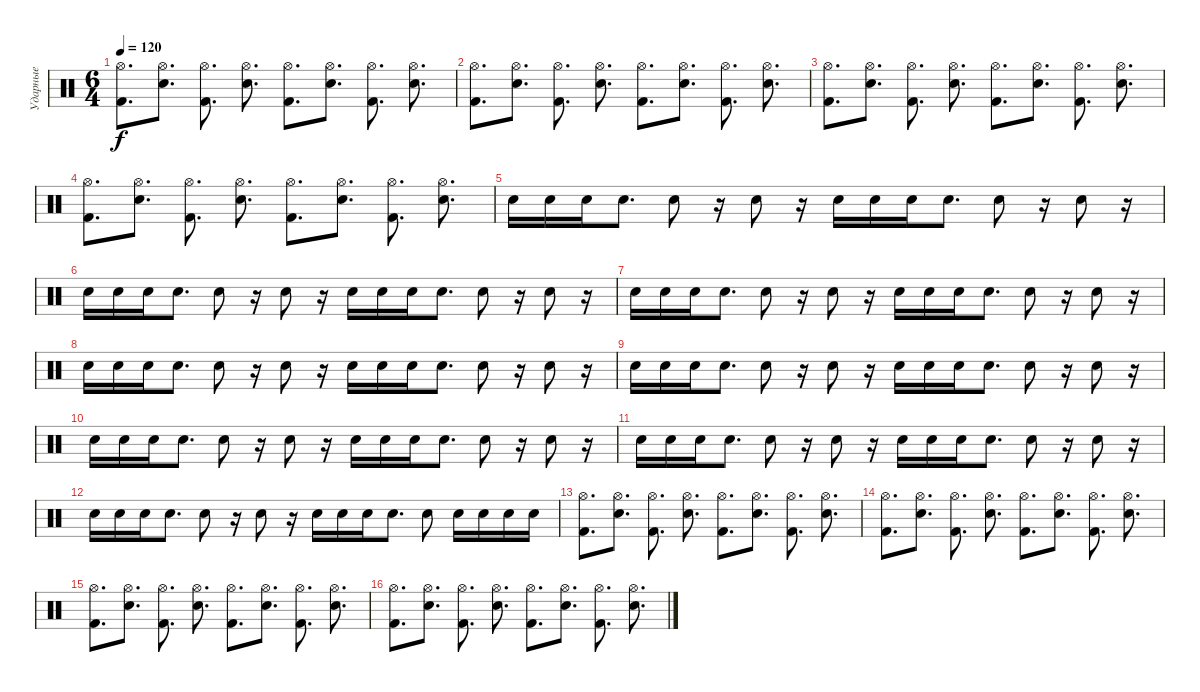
\track ("Ударные" "Ударные") {instrument percussion}
\staff {score}
\articulation defaults
\ts (6 4)
\tempo 120
\clef neutral
\ks c
("Hi-Hat (open)" "Kick (hit) 2").8{d dy f} ("Electric Snare (hit)" "Hi-Hat (open)").8{d} ("Hi-Hat (open)" "Kick (hit) 2").8{d} ("Electric Snare (hit)" "Hi-Hat (open)").8{d} ("Hi-Hat (open)" "Kick (hit) 2").8{d} ("Electric Snare (hit)" "Hi-Hat (open)").8{d} ("Hi-Hat (open)" "Kick (hit) 2").8{d} ("Electric Snare (hit)" "Hi-Hat (open)").8{d} |
("Hi-Hat (open)" "Kick (hit) 2").8{d} ("Electric Snare (hit)" "Hi-Hat (open)").8{d} ("Hi-Hat (open)" "Kick (hit) 2").8{d} ("Electric Snare (hit)" "Hi-Hat (open)").8{d} ("Hi-Hat (open)" "Kick (hit) 2").8{d} ("Electric Snare (hit)" "Hi-Hat (open)").8{d} ("Hi-Hat (open)" "Kick (hit) 2").8{d} ("Electric Snare (hit)" "Hi-Hat (open)").8{d} |
("Hi-Hat (open)" "Kick (hit) 2").8{d} ("Electric Snare (hit)" "Hi-Hat (open)").8{d} ("Hi-Hat (open)" "Kick (hit) 2").8{d} ("Electric Snare (hit)" "Hi-Hat (open)").8{d} ("Hi-Hat (open)" "Kick (hit) 2").8{d} ("Electric Snare (hit)" "Hi-Hat (open)").8{d} ("Hi-Hat (open)" "Kick (hit) 2").8{d} ("Electric Snare (hit)" "Hi-Hat (open)").8{d} |
("Hi-Hat (open)" "Kick (hit) 2").8{d} ("Electric Snare (hit)" "Hi-Hat (open)").8{d} ("Hi-Hat (open)" "Kick (hit) 2").8{d} ("Electric Snare (hit)" "Hi-Hat (open)").8{d} ("Hi-Hat (open)" "Kick (hit) 2").8{d} ("Electric Snare (hit)" "Hi-Hat (open)").8{d} ("Hi-Hat (open)" "Kick (hit) 2").8{d} ("Electric Snare (hit)" "Hi-Hat (open)").8{d} |
"Electric Snare (hit)".16 "Electric Snare (hit)".16 "Electric Snare (hit)".16 "Electric Snare (hit)".8{d} "Electric Snare (hit)".8 r.16 "Electric Snare (hit)".8 r.16 "Electric Snare (hit)".16 "Electric Snare (hit)".16 "Electric Snare (hit)".16 "Electric Snare (hit)".8{d} "Electric Snare (hit)".8 r.16 "Electric Snare (hit)".8 r.16 |
"Electric Snare (hit)".16 "Electric Snare (hit)".16 "Electric Snare (hit)".16 "Electric Snare (hit)".8{d} "Electric Snare (hit)".8 r.16 "Electric Snare (hit)".8 r.16 "Electric Snare (hit)".16 "Electric Snare (hit)".16 "Electric Snare (hit)".16 "Electric Snare (hit)".8{d} "Electric Snare (hit)".8 r.16 "Electric Snare (hit)".8 r.16 |
"Electric Snare (hit)".16 "Electric Snare (hit)".16 "Electric Snare (hit)".16 "Electric Snare (hit)".8{d} "Electric Snare (hit)".8 r.16 "Electric Snare (hit)".8 r.16 "Electric Snare (hit)".16 "Electric Snare (hit)".16 "Electric Snare (hit)".16 "Electric Snare (hit)".8{d} "Electric Snare (hit)".8 r.16 "Electric Snare (hit)".8 r.16 |
"Electric Snare (hit)".16 "Electric Snare (hit)".16 "Electric Snare (hit)".16 "Electric Snare (hit)".8{d} "Electric Snare (hit)".8 r.16 "Electric Snare (hit)".8 r.16 "Electric Snare (hit)".16 "Electric Snare (hit)".16 "Electric Snare (hit)".16 "Electric Snare (hit)".8{d} "Electric Snare (hit)".8 r.16 "Electric Snare (hit)".8 r.16 |
"Electric Snare (hit)".16 "Electric Snare (hit)".16 "Electric Snare (hit)".16 "Electric Snare (hit)".8{d} "Electric Snare (hit)".8 r.16 "Electric Snare (hit)".8 r.16 "Electric Snare (hit)".16 "Electric Snare (hit)".16 "Electric Snare (hit)".16 "Electric Snare (hit)".8{d} "Electric Snare (hit)".8 r.16 "Electric Snare (hit)".8 r.16 |
"Electric Snare (hit)".16 "Electric Snare (hit)".16 "Electric Snare (hit)".16 "Electric Snare (hit)".8{d} "Electric Snare (hit)".8 r.16 "Electric Snare (hit)".8 r.16 "Electric Snare (hit)".16 "Electric Snare (hit)".16 "Electric Snare (hit)".16 "Electric Snare (hit)".8{d} "Electric Snare (hit)".8 r.16 "Electric Snare (hit)".8 r.16 |
"Electric Snare (hit)".16 "Electric Snare (hit)".16 "Electric Snare (hit)".16 "Electric Snare (hit)".8{d} "Electric Snare (hit)".8 r.16 "Electric Snare (hit)".8 r.16 "Electric Snare (hit)".16 "Electric Snare (hit)".16 "Electric Snare (hit)".16 "Electric Snare (hit)".8{d} "Electric Snare (hit)".8 r.16 "Electric Snare (hit)".8 r.16 |
"Electric Snare (hit)".16 "Electric Snare (hit)".16 "Electric Snare (hit)".16 "Electric Snare (hit)".8{d} "Electric Snare (hit)".8 r.16 "Electric Snare (hit)".8 r.16 "Electric Snare (hit)".16 "Electric Snare (hit)".16 "Electric Snare (hit)".16 "Electric Snare (hit)".8{d} "Electric Snare (hit)".8 "Electric Snare (hit)".16 "Electric Snare (hit)".16 "Electric Snare (hit)".16 "Electric Snare (hit)".16 |
("Hi-Hat (open)" "Kick (hit) 2").8{d} ("Electric Snare (hit)" "Hi-Hat (open)").8{d} ("Hi-Hat (open)" "Kick (hit) 2").8{d} ("Electric Snare (hit)" "Hi-Hat (open)").8{d} ("Hi-Hat (open)" "Kick (hit) 2").8{d} ("Electric Snare (hit)" "Hi-Hat (open)").8{d} ("Hi-Hat (open)" "Kick (hit) 2").8{d} ("Electric Snare (hit)" "Hi-Hat (open)").8{d} |
("Hi-Hat (open)" "Kick (hit) 2").8{d} ("Electric Snare (hit)" "Hi-Hat (open)").8{d} ("Hi-Hat (open)" "Kick (hit) 2").8{d} ("Electric Snare (hit)" "Hi-Hat (open)").8{d} ("Hi-Hat (open)" "Kick (hit) 2").8{d} ("Electric Snare (hit)" "Hi-Hat (open)").8{d} ("Hi-Hat (open)" "Kick (hit) 2").8{d} ("Electric Snare (hit)" "Hi-Hat (open)").8{d} |
("Hi-Hat (open)" "Kick (hit) 2").8{d} ("Electric Snare (hit)" "Hi-Hat (open)").8{d} ("Hi-Hat (open)" "Kick (hit) 2").8{d} ("Electric Snare (hit)" "Hi-Hat (open)").8{d} ("Hi-Hat (open)" "Kick (hit) 2").8{d} ("Electric Snare (hit)" "Hi-Hat (open)").8{d} ("Hi-Hat (open)" "Kick (hit) 2").8{d} ("Electric Snare (hit)" "Hi-Hat (open)").8{d} |
("Hi-Hat (open)" "Kick (hit) 2").8{d} ("Electric Snare (hit)" "Hi-Hat (open)").8{d} ("Hi-Hat (open)" "Kick (hit) 2").8{d} ("Electric Snare (hit)" "Hi-Hat (open)").8{d} ("Hi-Hat (open)" "Kick (hit) 2").8{d} ("Electric Snare (hit)" "Hi-Hat (open)").8{d} ("Hi-Hat (open)" "Kick (hit) 2").8{d} ("Electric Snare (hit)" "Hi-Hat (open)").8{d}
